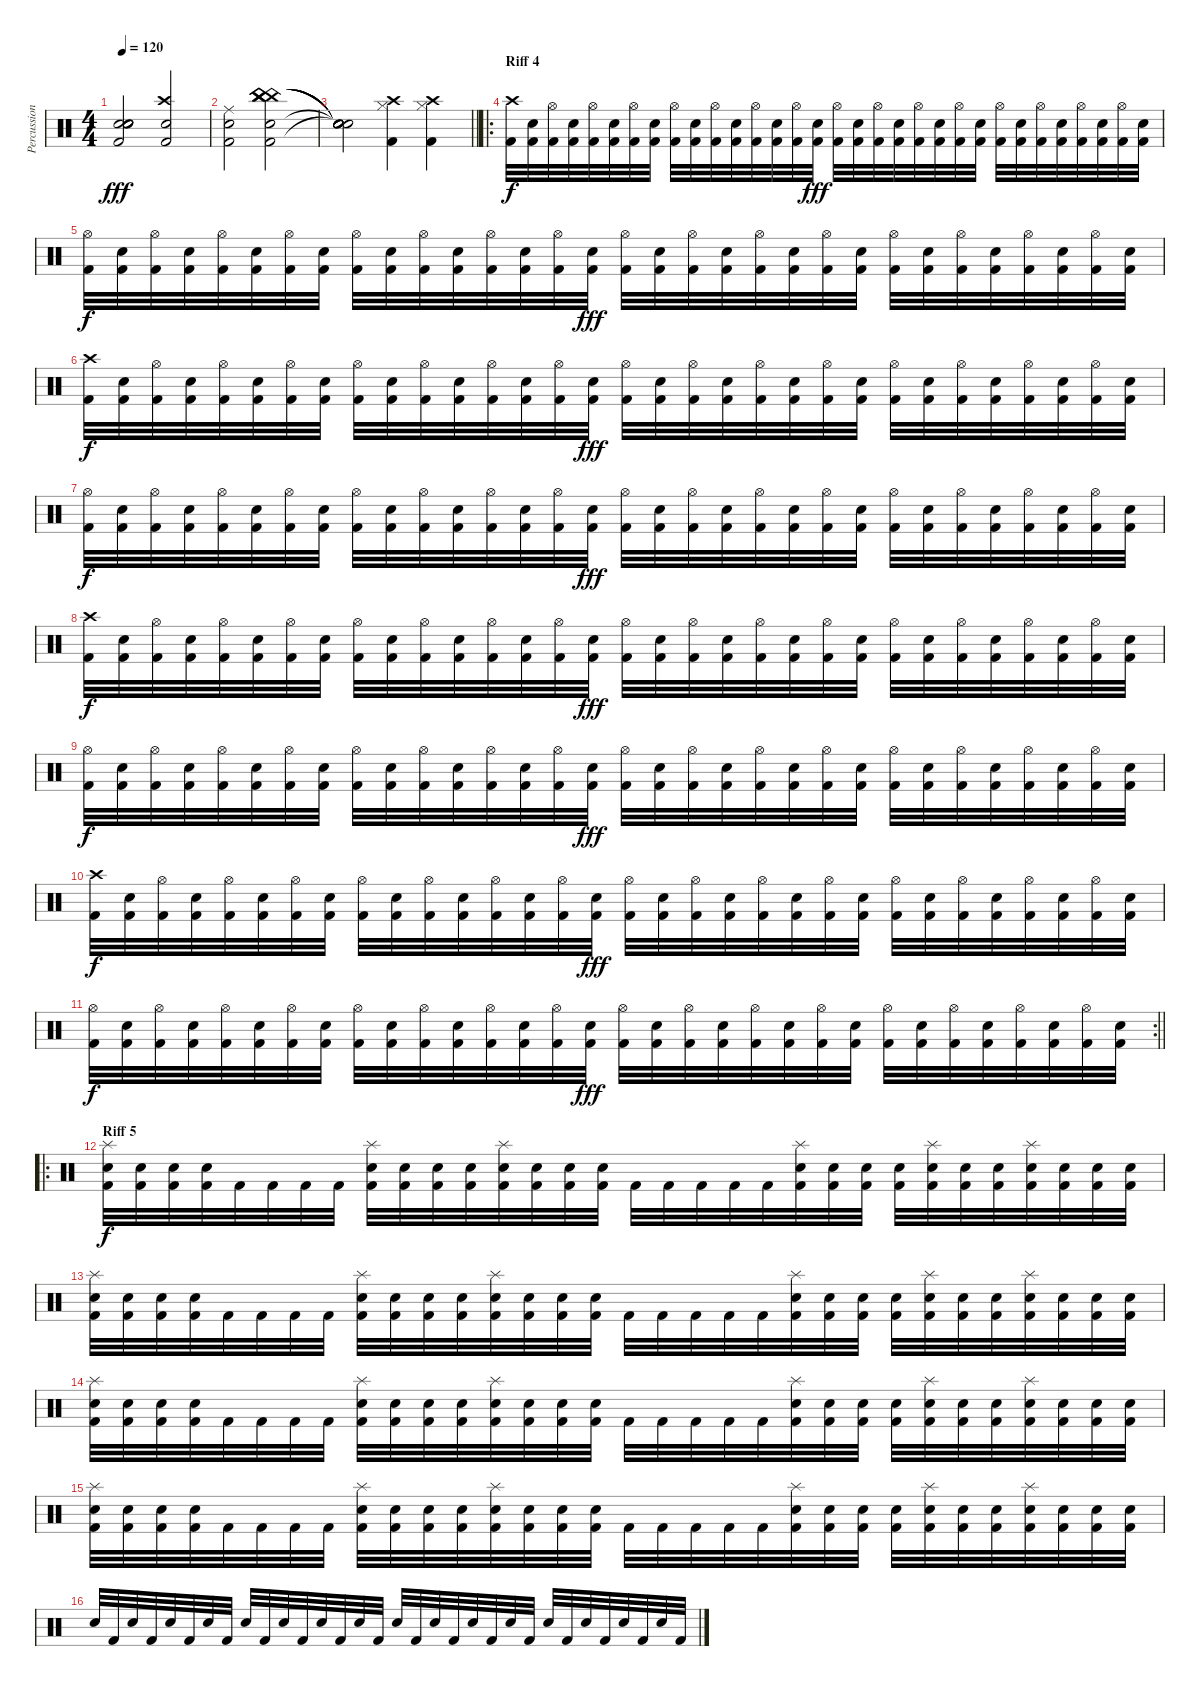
\track ("Percussions" "Percussion") {instrument percussion}
\staff {score}
\articulation defaults
\ts (4 4)
\tempo 120
\clef neutral
\ks c
("Snare (hit)"{t} "Snare (hit)"{t} "Snare (hit)"{t} "Snare (hit)"{t} "Snare (hit)"{t} "Kick (hit) 2"{t}).2{dy fff} ("Crash high (hit)" "Electric Snare (hit)" "Kick (hit) 2").2 |
("Ride (middle)" "Electric Snare (hit)" "Kick (hit) 2").2 ("China (hit)" "China (hit)" "China (hit)" "China (hit)" "Electric Snare (hit)" "Kick (hit) 2").2 |
\barLineRight lightlight
("Snare (hit)"{t} "Snare (hit)"{t} "Snare (hit)"{t} "Snare (hit)"{t} "Snare (hit)"{t} "Snare (hit)"{t}).2 ("Crash high (hit)" "Hi-Hat (closed)" "Kick (hit) 2").4 ("Crash high (hit)" "Hi-Hat (closed)" "Kick (hit) 2").4 |
\ro
\section ("" "Riff 4")
("Crash high (hit)" "Kick (hit) 2").32{dy f} ("Electric Snare (hit)" "Kick (hit) 2").32 ("Hi-Hat (open)" "Kick (hit) 2").32 ("Electric Snare (hit)" "Kick (hit) 2").32 ("Hi-Hat (open)" "Kick (hit) 2").32 ("Electric Snare (hit)" "Kick (hit) 2").32 ("Hi-Hat (open)" "Kick (hit) 2").32 ("Electric Snare (hit)" "Kick (hit) 2").32 ("Hi-Hat (open)" "Kick (hit) 2").32 ("Electric Snare (hit)" "Kick (hit) 2").32 ("Hi-Hat (open)" "Kick (hit) 2").32 ("Electric Snare (hit)" "Kick (hit) 2").32 ("Hi-Hat (open)" "Kick (hit) 2").32 ("Electric Snare (hit)" "Kick (hit) 2").32 ("Hi-Hat (open)" "Kick (hit) 2").32 ("Electric Snare (hit)" "Kick (hit) 2").32{dy fff} ("Hi-Hat (open)" "Kick (hit) 2").32 ("Electric Snare (hit)" "Kick (hit) 2").32 ("Hi-Hat (open)" "Kick (hit) 2").32 ("Electric Snare (hit)" "Kick (hit) 2").32 ("Hi-Hat (open)" "Kick (hit) 2").32 ("Electric Snare (hit)" "Kick (hit) 2").32 ("Hi-Hat (open)" "Kick (hit) 2").32 ("Electric Snare (hit)" "Kick (hit) 2").32 ("Hi-Hat (open)" "Kick (hit) 2").32 ("Electric Snare (hit)" "Kick (hit) 2").32 ("Hi-Hat (open)" "Kick (hit) 2").32 ("Electric Snare (hit)" "Kick (hit) 2").32 ("Hi-Hat (open)" "Kick (hit) 2").32 ("Electric Snare (hit)" "Kick (hit) 2").32 ("Hi-Hat (open)" "Kick (hit) 2").32 ("Electric Snare (hit)" "Kick (hit) 2").32 |
("Hi-Hat (open)" "Kick (hit) 2").32{dy f} ("Electric Snare (hit)" "Kick (hit) 2").32 ("Hi-Hat (open)" "Kick (hit) 2").32 ("Electric Snare (hit)" "Kick (hit) 2").32 ("Hi-Hat (open)" "Kick (hit) 2").32 ("Electric Snare (hit)" "Kick (hit) 2").32 ("Hi-Hat (open)" "Kick (hit) 2").32 ("Electric Snare (hit)" "Kick (hit) 2").32 ("Hi-Hat (open)" "Kick (hit) 2").32 ("Electric Snare (hit)" "Kick (hit) 2").32 ("Hi-Hat (open)" "Kick (hit) 2").32 ("Electric Snare (hit)" "Kick (hit) 2").32 ("Hi-Hat (open)" "Kick (hit) 2").32 ("Electric Snare (hit)" "Kick (hit) 2").32 ("Hi-Hat (open)" "Kick (hit) 2").32 ("Electric Snare (hit)" "Kick (hit) 2").32{dy fff} ("Hi-Hat (open)" "Kick (hit) 2").32 ("Electric Snare (hit)" "Kick (hit) 2").32 ("Hi-Hat (open)" "Kick (hit) 2").32 ("Electric Snare (hit)" "Kick (hit) 2").32 ("Hi-Hat (open)" "Kick (hit) 2").32 ("Electric Snare (hit)" "Kick (hit) 2").32 ("Hi-Hat (open)" "Kick (hit) 2").32 ("Electric Snare (hit)" "Kick (hit) 2").32 ("Hi-Hat (open)" "Kick (hit) 2").32 ("Electric Snare (hit)" "Kick (hit) 2").32 ("Hi-Hat (open)" "Kick (hit) 2").32 ("Electric Snare (hit)" "Kick (hit) 2").32 ("Hi-Hat (open)" "Kick (hit) 2").32 ("Electric Snare (hit)" "Kick (hit) 2").32 ("Hi-Hat (open)" "Kick (hit) 2").32 ("Electric Snare (hit)" "Kick (hit) 2").32 |
("Crash high (hit)" "Kick (hit) 2").32{dy f} ("Electric Snare (hit)" "Kick (hit) 2").32 ("Hi-Hat (open)" "Kick (hit) 2").32 ("Electric Snare (hit)" "Kick (hit) 2").32 ("Hi-Hat (open)" "Kick (hit) 2").32 ("Electric Snare (hit)" "Kick (hit) 2").32 ("Hi-Hat (open)" "Kick (hit) 2").32 ("Electric Snare (hit)" "Kick (hit) 2").32 ("Hi-Hat (open)" "Kick (hit) 2").32 ("Electric Snare (hit)" "Kick (hit) 2").32 ("Hi-Hat (open)" "Kick (hit) 2").32 ("Electric Snare (hit)" "Kick (hit) 2").32 ("Hi-Hat (open)" "Kick (hit) 2").32 ("Electric Snare (hit)" "Kick (hit) 2").32 ("Hi-Hat (open)" "Kick (hit) 2").32 ("Electric Snare (hit)" "Kick (hit) 2").32{dy fff} ("Hi-Hat (open)" "Kick (hit) 2").32 ("Electric Snare (hit)" "Kick (hit) 2").32 ("Hi-Hat (open)" "Kick (hit) 2").32 ("Electric Snare (hit)" "Kick (hit) 2").32 ("Hi-Hat (open)" "Kick (hit) 2").32 ("Electric Snare (hit)" "Kick (hit) 2").32 ("Hi-Hat (open)" "Kick (hit) 2").32 ("Electric Snare (hit)" "Kick (hit) 2").32 ("Hi-Hat (open)" "Kick (hit) 2").32 ("Electric Snare (hit)" "Kick (hit) 2").32 ("Hi-Hat (open)" "Kick (hit) 2").32 ("Electric Snare (hit)" "Kick (hit) 2").32 ("Hi-Hat (open)" "Kick (hit) 2").32 ("Electric Snare (hit)" "Kick (hit) 2").32 ("Hi-Hat (open)" "Kick (hit) 2").32 ("Electric Snare (hit)" "Kick (hit) 2").32 |
("Hi-Hat (open)" "Kick (hit) 2").32{dy f} ("Electric Snare (hit)" "Kick (hit) 2").32 ("Hi-Hat (open)" "Kick (hit) 2").32 ("Electric Snare (hit)" "Kick (hit) 2").32 ("Hi-Hat (open)" "Kick (hit) 2").32 ("Electric Snare (hit)" "Kick (hit) 2").32 ("Hi-Hat (open)" "Kick (hit) 2").32 ("Electric Snare (hit)" "Kick (hit) 2").32 ("Hi-Hat (open)" "Kick (hit) 2").32 ("Electric Snare (hit)" "Kick (hit) 2").32 ("Hi-Hat (open)" "Kick (hit) 2").32 ("Electric Snare (hit)" "Kick (hit) 2").32 ("Hi-Hat (open)" "Kick (hit) 2").32 ("Electric Snare (hit)" "Kick (hit) 2").32 ("Hi-Hat (open)" "Kick (hit) 2").32 ("Electric Snare (hit)" "Kick (hit) 2").32{dy fff} ("Hi-Hat (open)" "Kick (hit) 2").32 ("Electric Snare (hit)" "Kick (hit) 2").32 ("Hi-Hat (open)" "Kick (hit) 2").32 ("Electric Snare (hit)" "Kick (hit) 2").32 ("Hi-Hat (open)" "Kick (hit) 2").32 ("Electric Snare (hit)" "Kick (hit) 2").32 ("Hi-Hat (open)" "Kick (hit) 2").32 ("Electric Snare (hit)" "Kick (hit) 2").32 ("Hi-Hat (open)" "Kick (hit) 2").32 ("Electric Snare (hit)" "Kick (hit) 2").32 ("Hi-Hat (open)" "Kick (hit) 2").32 ("Electric Snare (hit)" "Kick (hit) 2").32 ("Hi-Hat (open)" "Kick (hit) 2").32 ("Electric Snare (hit)" "Kick (hit) 2").32 ("Hi-Hat (open)" "Kick (hit) 2").32 ("Electric Snare (hit)" "Kick (hit) 2").32 |
("Crash high (hit)" "Kick (hit) 2").32{dy f} ("Electric Snare (hit)" "Kick (hit) 2").32 ("Hi-Hat (open)" "Kick (hit) 2").32 ("Electric Snare (hit)" "Kick (hit) 2").32 ("Hi-Hat (open)" "Kick (hit) 2").32 ("Electric Snare (hit)" "Kick (hit) 2").32 ("Hi-Hat (open)" "Kick (hit) 2").32 ("Electric Snare (hit)" "Kick (hit) 2").32 ("Hi-Hat (open)" "Kick (hit) 2").32 ("Electric Snare (hit)" "Kick (hit) 2").32 ("Hi-Hat (open)" "Kick (hit) 2").32 ("Electric Snare (hit)" "Kick (hit) 2").32 ("Hi-Hat (open)" "Kick (hit) 2").32 ("Electric Snare (hit)" "Kick (hit) 2").32 ("Hi-Hat (open)" "Kick (hit) 2").32 ("Electric Snare (hit)" "Kick (hit) 2").32{dy fff} ("Hi-Hat (open)" "Kick (hit) 2").32 ("Electric Snare (hit)" "Kick (hit) 2").32 ("Hi-Hat (open)" "Kick (hit) 2").32 ("Electric Snare (hit)" "Kick (hit) 2").32 ("Hi-Hat (open)" "Kick (hit) 2").32 ("Electric Snare (hit)" "Kick (hit) 2").32 ("Hi-Hat (open)" "Kick (hit) 2").32 ("Electric Snare (hit)" "Kick (hit) 2").32 ("Hi-Hat (open)" "Kick (hit) 2").32 ("Electric Snare (hit)" "Kick (hit) 2").32 ("Hi-Hat (open)" "Kick (hit) 2").32 ("Electric Snare (hit)" "Kick (hit) 2").32 ("Hi-Hat (open)" "Kick (hit) 2").32 ("Electric Snare (hit)" "Kick (hit) 2").32 ("Hi-Hat (open)" "Kick (hit) 2").32 ("Electric Snare (hit)" "Kick (hit) 2").32 |
("Hi-Hat (open)" "Kick (hit) 2").32{dy f} ("Electric Snare (hit)" "Kick (hit) 2").32 ("Hi-Hat (open)" "Kick (hit) 2").32 ("Electric Snare (hit)" "Kick (hit) 2").32 ("Hi-Hat (open)" "Kick (hit) 2").32 ("Electric Snare (hit)" "Kick (hit) 2").32 ("Hi-Hat (open)" "Kick (hit) 2").32 ("Electric Snare (hit)" "Kick (hit) 2").32 ("Hi-Hat (open)" "Kick (hit) 2").32 ("Electric Snare (hit)" "Kick (hit) 2").32 ("Hi-Hat (open)" "Kick (hit) 2").32 ("Electric Snare (hit)" "Kick (hit) 2").32 ("Hi-Hat (open)" "Kick (hit) 2").32 ("Electric Snare (hit)" "Kick (hit) 2").32 ("Hi-Hat (open)" "Kick (hit) 2").32 ("Electric Snare (hit)" "Kick (hit) 2").32{dy fff} ("Hi-Hat (open)" "Kick (hit) 2").32 ("Electric Snare (hit)" "Kick (hit) 2").32 ("Hi-Hat (open)" "Kick (hit) 2").32 ("Electric Snare (hit)" "Kick (hit) 2").32 ("Hi-Hat (open)" "Kick (hit) 2").32 ("Electric Snare (hit)" "Kick (hit) 2").32 ("Hi-Hat (open)" "Kick (hit) 2").32 ("Electric Snare (hit)" "Kick (hit) 2").32 ("Hi-Hat (open)" "Kick (hit) 2").32 ("Electric Snare (hit)" "Kick (hit) 2").32 ("Hi-Hat (open)" "Kick (hit) 2").32 ("Electric Snare (hit)" "Kick (hit) 2").32 ("Hi-Hat (open)" "Kick (hit) 2").32 ("Electric Snare (hit)" "Kick (hit) 2").32 ("Hi-Hat (open)" "Kick (hit) 2").32 ("Electric Snare (hit)" "Kick (hit) 2").32 |
("Crash high (hit)" "Kick (hit) 2").32{dy f} ("Electric Snare (hit)" "Kick (hit) 2").32 ("Hi-Hat (open)" "Kick (hit) 2").32 ("Electric Snare (hit)" "Kick (hit) 2").32 ("Hi-Hat (open)" "Kick (hit) 2").32 ("Electric Snare (hit)" "Kick (hit) 2").32 ("Hi-Hat (open)" "Kick (hit) 2").32 ("Electric Snare (hit)" "Kick (hit) 2").32 ("Hi-Hat (open)" "Kick (hit) 2").32 ("Electric Snare (hit)" "Kick (hit) 2").32 ("Hi-Hat (open)" "Kick (hit) 2").32 ("Electric Snare (hit)" "Kick (hit) 2").32 ("Hi-Hat (open)" "Kick (hit) 2").32 ("Electric Snare (hit)" "Kick (hit) 2").32 ("Hi-Hat (open)" "Kick (hit) 2").32 ("Electric Snare (hit)" "Kick (hit) 2").32{dy fff} ("Hi-Hat (open)" "Kick (hit) 2").32 ("Electric Snare (hit)" "Kick (hit) 2").32 ("Hi-Hat (open)" "Kick (hit) 2").32 ("Electric Snare (hit)" "Kick (hit) 2").32 ("Hi-Hat (open)" "Kick (hit) 2").32 ("Electric Snare (hit)" "Kick (hit) 2").32 ("Hi-Hat (open)" "Kick (hit) 2").32 ("Electric Snare (hit)" "Kick (hit) 2").32 ("Hi-Hat (open)" "Kick (hit) 2").32 ("Electric Snare (hit)" "Kick (hit) 2").32 ("Hi-Hat (open)" "Kick (hit) 2").32 ("Electric Snare (hit)" "Kick (hit) 2").32 ("Hi-Hat (open)" "Kick (hit) 2").32 ("Electric Snare (hit)" "Kick (hit) 2").32 ("Hi-Hat (open)" "Kick (hit) 2").32 ("Electric Snare (hit)" "Kick (hit) 2").32 |
\rc 2
\barLineRight lightlight
("Hi-Hat (open)" "Kick (hit) 2").32{dy f} ("Electric Snare (hit)" "Kick (hit) 2").32 ("Hi-Hat (open)" "Kick (hit) 2").32 ("Electric Snare (hit)" "Kick (hit) 2").32 ("Hi-Hat (open)" "Kick (hit) 2").32 ("Electric Snare (hit)" "Kick (hit) 2").32 ("Hi-Hat (open)" "Kick (hit) 2").32 ("Electric Snare (hit)" "Kick (hit) 2").32 ("Hi-Hat (open)" "Kick (hit) 2").32 ("Electric Snare (hit)" "Kick (hit) 2").32 ("Hi-Hat (open)" "Kick (hit) 2").32 ("Electric Snare (hit)" "Kick (hit) 2").32 ("Hi-Hat (open)" "Kick (hit) 2").32 ("Electric Snare (hit)" "Kick (hit) 2").32 ("Hi-Hat (open)" "Kick (hit) 2").32 ("Electric Snare (hit)" "Kick (hit) 2").32{dy fff} ("Hi-Hat (open)" "Kick (hit) 2").32 ("Electric Snare (hit)" "Kick (hit) 2").32 ("Hi-Hat (open)" "Kick (hit) 2").32 ("Electric Snare (hit)" "Kick (hit) 2").32 ("Hi-Hat (open)" "Kick (hit) 2").32 ("Electric Snare (hit)" "Kick (hit) 2").32 ("Hi-Hat (open)" "Kick (hit) 2").32 ("Electric Snare (hit)" "Kick (hit) 2").32 ("Hi-Hat (open)" "Kick (hit) 2").32 ("Electric Snare (hit)" "Kick (hit) 2").32 ("Hi-Hat (open)" "Kick (hit) 2").32 ("Electric Snare (hit)" "Kick (hit) 2").32 ("Hi-Hat (open)" "Kick (hit) 2").32 ("Electric Snare (hit)" "Kick (hit) 2").32 ("Hi-Hat (open)" "Kick (hit) 2").32 ("Electric Snare (hit)" "Kick (hit) 2").32 |
\ro
\section ("" "Riff 5")
("Splash (hit)" "Electric Snare (hit)" "Kick (hit) 2").32{dy f} ("Electric Snare (hit)" "Kick (hit) 2").32 ("Electric Snare (hit)" "Kick (hit) 2").32 ("Electric Snare (hit)" "Kick (hit) 2").32 "Kick (hit) 2".32 "Kick (hit) 2".32 "Kick (hit) 2".32 "Kick (hit) 2".32 ("Splash (hit)" "Electric Snare (hit)" "Kick (hit) 2").32 ("Electric Snare (hit)" "Kick (hit) 2").32 ("Electric Snare (hit)" "Kick (hit) 2").32 ("Electric Snare (hit)" "Kick (hit) 2").32 ("Splash (hit)" "Electric Snare (hit)" "Kick (hit) 2").32 ("Electric Snare (hit)" "Kick (hit) 2").32 ("Electric Snare (hit)" "Kick (hit) 2").32 ("Electric Snare (hit)" "Kick (hit) 2").32 "Kick (hit) 2".32 "Kick (hit) 2".32 "Kick (hit) 2".32 "Kick (hit) 2".32 "Kick (hit) 2".32 ("Splash (hit)" "Electric Snare (hit)" "Kick (hit) 2").32 ("Electric Snare (hit)" "Kick (hit) 2").32 ("Electric Snare (hit)" "Kick (hit) 2").32 ("Electric Snare (hit)" "Kick (hit) 2").32 ("Splash (hit)" "Electric Snare (hit)" "Kick (hit) 2").32 ("Electric Snare (hit)" "Kick (hit) 2").32 ("Electric Snare (hit)" "Kick (hit) 2").32 ("Splash (hit)" "Electric Snare (hit)" "Kick (hit) 2").32 ("Electric Snare (hit)" "Kick (hit) 2").32 ("Electric Snare (hit)" "Kick (hit) 2").32 ("Electric Snare (hit)" "Kick (hit) 2").32 |
("Splash (hit)" "Electric Snare (hit)" "Kick (hit) 2").32 ("Electric Snare (hit)" "Kick (hit) 2").32 ("Electric Snare (hit)" "Kick (hit) 2").32 ("Electric Snare (hit)" "Kick (hit) 2").32 "Kick (hit) 2".32 "Kick (hit) 2".32 "Kick (hit) 2".32 "Kick (hit) 2".32 ("Splash (hit)" "Electric Snare (hit)" "Kick (hit) 2").32 ("Electric Snare (hit)" "Kick (hit) 2").32 ("Electric Snare (hit)" "Kick (hit) 2").32 ("Electric Snare (hit)" "Kick (hit) 2").32 ("Splash (hit)" "Electric Snare (hit)" "Kick (hit) 2").32 ("Electric Snare (hit)" "Kick (hit) 2").32 ("Electric Snare (hit)" "Kick (hit) 2").32 ("Electric Snare (hit)" "Kick (hit) 2").32 "Kick (hit) 2".32 "Kick (hit) 2".32 "Kick (hit) 2".32 "Kick (hit) 2".32 "Kick (hit) 2".32 ("Splash (hit)" "Electric Snare (hit)" "Kick (hit) 2").32 ("Electric Snare (hit)" "Kick (hit) 2").32 ("Electric Snare (hit)" "Kick (hit) 2").32 ("Electric Snare (hit)" "Kick (hit) 2").32 ("Splash (hit)" "Electric Snare (hit)" "Kick (hit) 2").32 ("Electric Snare (hit)" "Kick (hit) 2").32 ("Electric Snare (hit)" "Kick (hit) 2").32 ("Splash (hit)" "Electric Snare (hit)" "Kick (hit) 2").32 ("Electric Snare (hit)" "Kick (hit) 2").32 ("Electric Snare (hit)" "Kick (hit) 2").32 ("Electric Snare (hit)" "Kick (hit) 2").32 |
("Splash (hit)" "Electric Snare (hit)" "Kick (hit) 2").32 ("Electric Snare (hit)" "Kick (hit) 2").32 ("Electric Snare (hit)" "Kick (hit) 2").32 ("Electric Snare (hit)" "Kick (hit) 2").32 "Kick (hit) 2".32 "Kick (hit) 2".32 "Kick (hit) 2".32 "Kick (hit) 2".32 ("Splash (hit)" "Electric Snare (hit)" "Kick (hit) 2").32 ("Electric Snare (hit)" "Kick (hit) 2").32 ("Electric Snare (hit)" "Kick (hit) 2").32 ("Electric Snare (hit)" "Kick (hit) 2").32 ("Splash (hit)" "Electric Snare (hit)" "Kick (hit) 2").32 ("Electric Snare (hit)" "Kick (hit) 2").32 ("Electric Snare (hit)" "Kick (hit) 2").32 ("Electric Snare (hit)" "Kick (hit) 2").32 "Kick (hit) 2".32 "Kick (hit) 2".32 "Kick (hit) 2".32 "Kick (hit) 2".32 "Kick (hit) 2".32 ("Splash (hit)" "Electric Snare (hit)" "Kick (hit) 2").32 ("Electric Snare (hit)" "Kick (hit) 2").32 ("Electric Snare (hit)" "Kick (hit) 2").32 ("Electric Snare (hit)" "Kick (hit) 2").32 ("Splash (hit)" "Electric Snare (hit)" "Kick (hit) 2").32 ("Electric Snare (hit)" "Kick (hit) 2").32 ("Electric Snare (hit)" "Kick (hit) 2").32 ("Splash (hit)" "Electric Snare (hit)" "Kick (hit) 2").32 ("Electric Snare (hit)" "Kick (hit) 2").32 ("Electric Snare (hit)" "Kick (hit) 2").32 ("Electric Snare (hit)" "Kick (hit) 2").32 |
("Splash (hit)" "Electric Snare (hit)" "Kick (hit) 2").32 ("Electric Snare (hit)" "Kick (hit) 2").32 ("Electric Snare (hit)" "Kick (hit) 2").32 ("Electric Snare (hit)" "Kick (hit) 2").32 "Kick (hit) 2".32 "Kick (hit) 2".32 "Kick (hit) 2".32 "Kick (hit) 2".32 ("Splash (hit)" "Electric Snare (hit)" "Kick (hit) 2").32 ("Electric Snare (hit)" "Kick (hit) 2").32 ("Electric Snare (hit)" "Kick (hit) 2").32 ("Electric Snare (hit)" "Kick (hit) 2").32 ("Splash (hit)" "Electric Snare (hit)" "Kick (hit) 2").32 ("Electric Snare (hit)" "Kick (hit) 2").32 ("Electric Snare (hit)" "Kick (hit) 2").32 ("Electric Snare (hit)" "Kick (hit) 2").32 "Kick (hit) 2".32 "Kick (hit) 2".32 "Kick (hit) 2".32 "Kick (hit) 2".32 "Kick (hit) 2".32 ("Splash (hit)" "Electric Snare (hit)" "Kick (hit) 2").32 ("Electric Snare (hit)" "Kick (hit) 2").32 ("Electric Snare (hit)" "Kick (hit) 2").32 ("Electric Snare (hit)" "Kick (hit) 2").32 ("Splash (hit)" "Electric Snare (hit)" "Kick (hit) 2").32 ("Electric Snare (hit)" "Kick (hit) 2").32 ("Electric Snare (hit)" "Kick (hit) 2").32 ("Splash (hit)" "Electric Snare (hit)" "Kick (hit) 2").32 ("Electric Snare (hit)" "Kick (hit) 2").32 ("Electric Snare (hit)" "Kick (hit) 2").32 ("Electric Snare (hit)" "Kick (hit) 2").32 |
"Electric Snare (hit)".32 "Kick (hit) 2".32 "Electric Snare (hit)".32 "Kick (hit) 2".32 "Electric Snare (hit)".32 "Kick (hit) 2".32 "Electric Snare (hit)".32 "Kick (hit) 2".32 "Electric Snare (hit)".32 "Kick (hit) 2".32 "Electric Snare (hit)".32 "Kick (hit) 2".32 "Electric Snare (hit)".32 "Kick (hit) 2".32 "Electric Snare (hit)".32 "Kick (hit) 2".32 "Electric Snare (hit)".32 "Kick (hit) 2".32 "Electric Snare (hit)".32 "Kick (hit) 2".32 "Electric Snare (hit)".32 "Kick (hit) 2".32 "Electric Snare (hit)".32 "Kick (hit) 2".32 "Electric Snare (hit)".32 "Kick (hit) 2".32 "Electric Snare (hit)".32 "Kick (hit) 2".32 "Electric Snare (hit)".32 "Kick (hit) 2".32 "Electric Snare (hit)".32 "Kick (hit) 2".32
